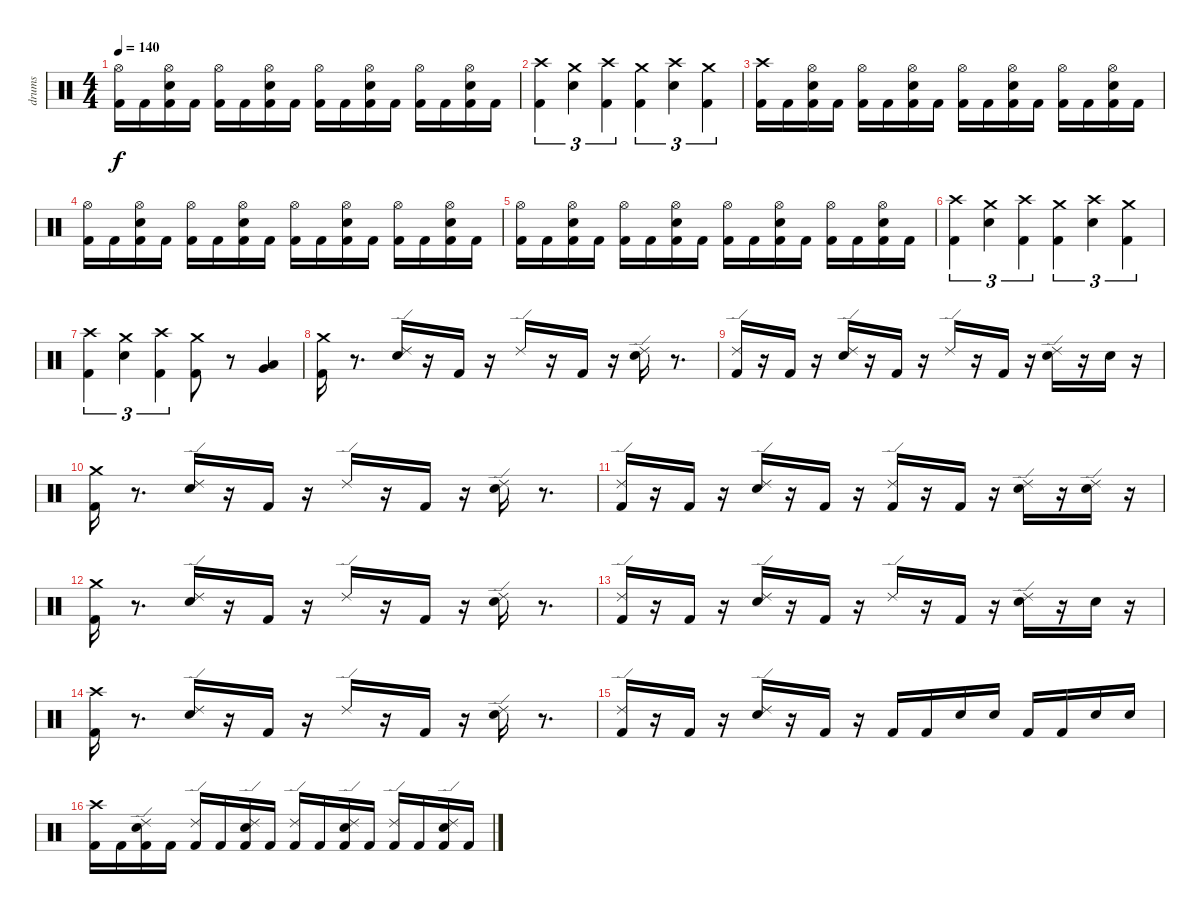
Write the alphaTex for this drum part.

\track ("drums" "drums") {instrument percussion}
\staff {score}
\articulation defaults
\ts (4 4)
\tempo 140
\clef neutral
\ks c
("Hi-Hat (open)" "Kick (hit) 2").16{dy f} "Kick (hit) 2".16 ("Hi-Hat (open)" "Kick (hit) 2" "Snare (hit) 2").16 "Kick (hit) 2".16 ("Hi-Hat (open)" "Kick (hit) 2").16 "Kick (hit) 2".16 ("Hi-Hat (open)" "Kick (hit) 2" "Snare (hit) 2").16 "Kick (hit) 2".16 ("Hi-Hat (open)" "Kick (hit) 2").16 "Kick (hit) 2".16 ("Hi-Hat (open)" "Kick (hit) 2" "Snare (hit) 2").16 "Kick (hit) 2".16 ("Hi-Hat (open)" "Kick (hit) 2").16 "Kick (hit) 2".16 ("Hi-Hat (open)" "Kick (hit) 2" "Snare (hit) 2").16 "Kick (hit) 2".16 |
("Crash high (hit)" "Kick (hit) 2").4{tu (3 2)} ("Crash medium (hit)" "Snare (hit) 2").4{tu (3 2)} ("Crash high (hit)" "Kick (hit) 2").4{tu (3 2)} ("Crash medium (hit)" "Kick (hit) 2").4{tu (3 2)} ("Snare (hit) 2" "Crash high (hit)").4{tu (3 2)} ("Crash medium (hit)" "Kick (hit) 2").4{tu (3 2)} |
("Crash high (hit)" "Kick (hit) 2").16 "Kick (hit) 2".16 ("Hi-Hat (open)" "Kick (hit) 2" "Snare (hit) 2").16 "Kick (hit) 2".16 ("Hi-Hat (open)" "Kick (hit) 2").16 "Kick (hit) 2".16 ("Hi-Hat (open)" "Kick (hit) 2" "Snare (hit) 2").16 "Kick (hit) 2".16 ("Hi-Hat (open)" "Kick (hit) 2").16 "Kick (hit) 2".16 ("Hi-Hat (open)" "Kick (hit) 2" "Snare (hit) 2").16 "Kick (hit) 2".16 ("Hi-Hat (open)" "Kick (hit) 2").16 "Kick (hit) 2".16 ("Hi-Hat (open)" "Kick (hit) 2" "Snare (hit) 2").16 "Kick (hit) 2".16 |
("Hi-Hat (open)" "Kick (hit) 2").16 "Kick (hit) 2".16 ("Hi-Hat (open)" "Kick (hit) 2" "Snare (hit) 2").16 "Kick (hit) 2".16 ("Hi-Hat (open)" "Kick (hit) 2").16 "Kick (hit) 2".16 ("Hi-Hat (open)" "Kick (hit) 2" "Snare (hit) 2").16 "Kick (hit) 2".16 ("Hi-Hat (open)" "Kick (hit) 2").16 "Kick (hit) 2".16 ("Hi-Hat (open)" "Kick (hit) 2" "Snare (hit) 2").16 "Kick (hit) 2".16 ("Hi-Hat (open)" "Kick (hit) 2").16 "Kick (hit) 2".16 ("Hi-Hat (open)" "Kick (hit) 2" "Snare (hit) 2").16 "Kick (hit) 2".16 |
("Hi-Hat (open)" "Kick (hit) 2").16 "Kick (hit) 2".16 ("Hi-Hat (open)" "Kick (hit) 2" "Snare (hit) 2").16 "Kick (hit) 2".16 ("Hi-Hat (open)" "Kick (hit) 2").16 "Kick (hit) 2".16 ("Hi-Hat (open)" "Kick (hit) 2" "Snare (hit) 2").16 "Kick (hit) 2".16 ("Hi-Hat (open)" "Kick (hit) 2").16 "Kick (hit) 2".16 ("Hi-Hat (open)" "Kick (hit) 2" "Snare (hit) 2").16 "Kick (hit) 2".16 ("Hi-Hat (open)" "Kick (hit) 2").16 "Kick (hit) 2".16 ("Hi-Hat (open)" "Kick (hit) 2" "Snare (hit) 2").16 "Kick (hit) 2".16 |
("Crash high (hit)" "Kick (hit) 2").4{tu (3 2)} ("Crash medium (hit)" "Snare (hit) 2").4{tu (3 2)} ("Crash high (hit)" "Kick (hit) 2").4{tu (3 2)} ("Crash medium (hit)" "Kick (hit) 2").4{tu (3 2)} ("Snare (hit) 2" "Crash high (hit)").4{tu (3 2)} ("Crash medium (hit)" "Kick (hit) 2").4{tu (3 2)} |
("Crash high (hit)" "Kick (hit) 2").4{tu (3 2)} ("Crash medium (hit)" "Snare (hit) 2").4{tu (3 2)} ("Crash high (hit)" "Kick (hit) 2").4{tu (3 2)} ("Crash medium (hit)" "Kick (hit) 2").8 r.8 ("Low Tom (hit)" "Very Low Tom (hit)").4 |
("Crash medium (hit)" "Kick (hit) 2").16 r.8{d} ("Ride (edge) 2" "Snare (hit) 2").16 r.16 "Kick (hit) 2".16 r.16 "Ride (edge) 2".16 r.16 "Kick (hit) 2".16 r.16 ("Ride (edge) 2" "Snare (hit) 2").16 r.8{d} |
("Ride (edge) 2" "Kick (hit) 2").16 r.16 "Kick (hit) 2".16 r.16 ("Ride (edge) 2" "Snare (hit) 2").16 r.16 "Kick (hit) 2".16 r.16 "Ride (edge) 2".16 r.16 "Kick (hit) 2".16 r.16 ("Ride (edge) 2" "Snare (hit) 2").16 r.16 "Snare (hit) 2".16 r.16 |
("Crash medium (hit)" "Kick (hit) 2").16 r.8{d} ("Ride (edge) 2" "Snare (hit) 2").16 r.16 "Kick (hit) 2".16 r.16 "Ride (edge) 2".16 r.16 "Kick (hit) 2".16 r.16 ("Ride (edge) 2" "Snare (hit) 2").16 r.8{d} |
("Ride (edge) 2" "Kick (hit) 2").16 r.16 "Kick (hit) 2".16 r.16 ("Ride (edge) 2" "Snare (hit) 2").16 r.16 "Kick (hit) 2".16 r.16 ("Kick (hit) 2" "Ride (edge) 2").16 r.16 "Kick (hit) 2".16 r.16 ("Ride (edge) 2" "Snare (hit) 2").16 r.16 ("Ride (edge) 2" "Snare (hit) 2").16 r.16 |
("Crash medium (hit)" "Kick (hit) 2").16 r.8{d} ("Ride (edge) 2" "Snare (hit) 2").16 r.16 "Kick (hit) 2".16 r.16 "Ride (edge) 2".16 r.16 "Kick (hit) 2".16 r.16 ("Ride (edge) 2" "Snare (hit) 2").16 r.8{d} |
("Ride (edge) 2" "Kick (hit) 2").16 r.16 "Kick (hit) 2".16 r.16 ("Ride (edge) 2" "Snare (hit) 2").16 r.16 "Kick (hit) 2".16 r.16 "Ride (edge) 2".16 r.16 "Kick (hit) 2".16 r.16 ("Ride (edge) 2" "Snare (hit) 2").16 r.16 "Snare (hit) 2".16 r.16 |
("Crash high (hit)" "Kick (hit) 2").16 r.8{d} ("Ride (edge) 2" "Snare (hit) 2").16 r.16 "Kick (hit) 2".16 r.16 "Ride (edge) 2".16 r.16 "Kick (hit) 2".16 r.16 ("Ride (edge) 2" "Snare (hit) 2").16 r.8{d} |
("Ride (edge) 2" "Kick (hit) 2").16 r.16 "Kick (hit) 2".16 r.16 ("Ride (edge) 2" "Snare (hit) 2").16 r.16 "Kick (hit) 2".16 r.16 "Kick (hit) 2".16 "Kick (hit) 2".16 "Snare (hit) 2".16 "Snare (hit) 2".16 "Kick (hit) 2".16 "Kick (hit) 2".16 "Snare (hit) 2".16 "Snare (hit) 2".16 |
("Crash high (hit)" "Kick (hit) 2").16 "Kick (hit) 2".16 ("Kick (hit) 2" "Ride (edge) 2" "Snare (hit) 2").16 "Kick (hit) 2".16 ("Ride (edge) 2" "Kick (hit) 2").16 "Kick (hit) 2".16 ("Kick (hit) 2" "Ride (edge) 2" "Snare (hit) 2").16 "Kick (hit) 2".16 ("Ride (edge) 2" "Kick (hit) 2").16 "Kick (hit) 2".16 ("Kick (hit) 2" "Ride (edge) 2" "Snare (hit) 2").16 "Kick (hit) 2".16 ("Ride (edge) 2" "Kick (hit) 2").16 "Kick (hit) 2".16 ("Kick (hit) 2" "Ride (edge) 2" "Snare (hit) 2").16 "Kick (hit) 2".16
